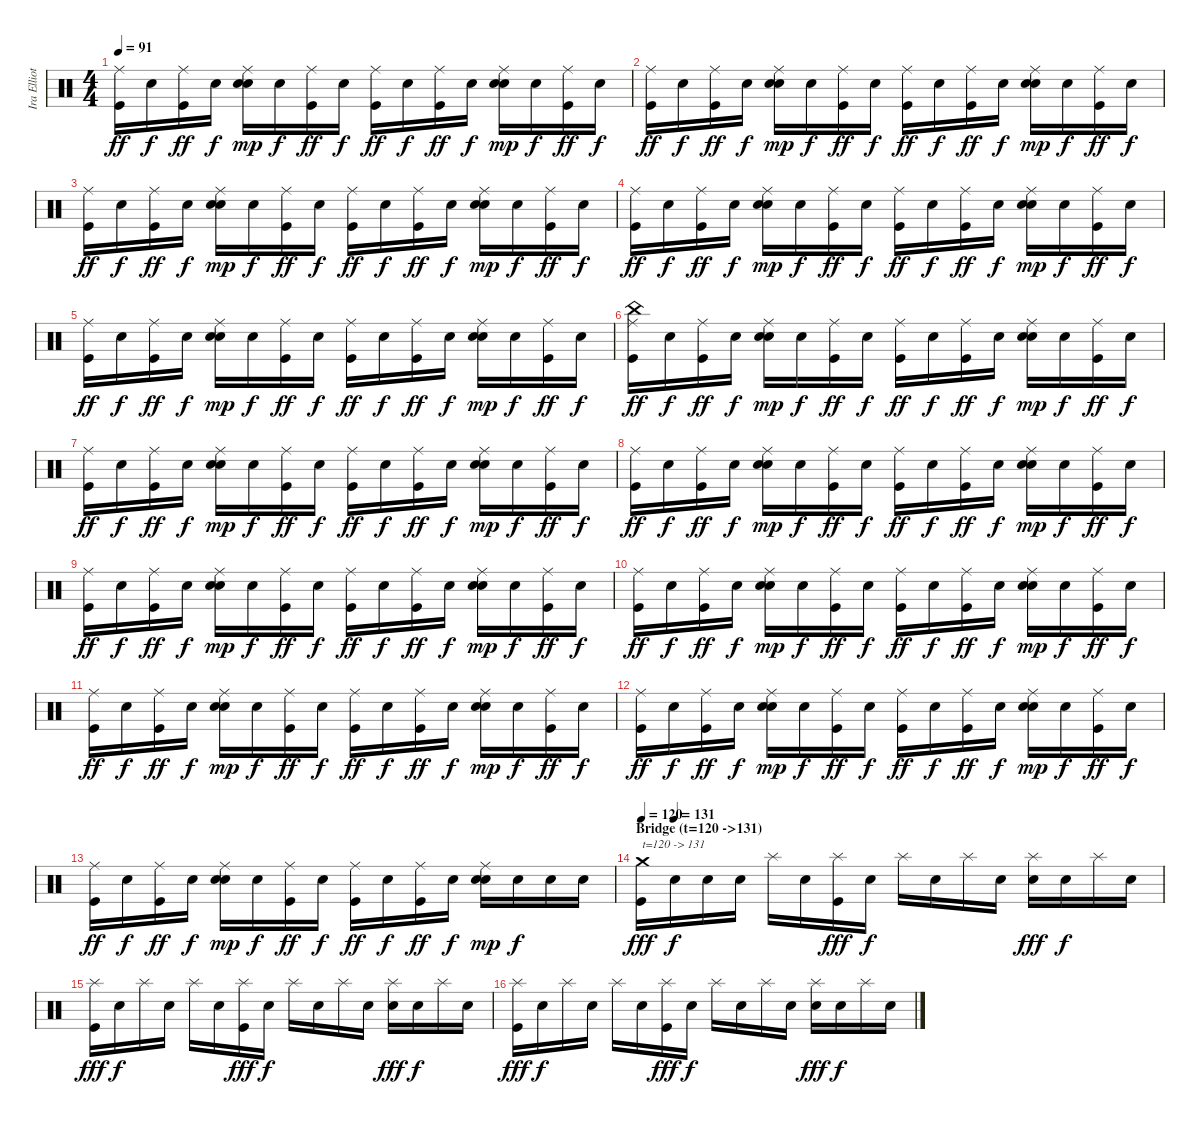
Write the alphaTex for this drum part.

\track ("Ira Elliot - Drums" "Ira Elliot") {instrument percussion}
\staff {score}
\articulation defaults
\ts (4 4)
\tempo 91
\clef neutral
\ks c
("Ride (middle)" "Kick (hit)").16{dy ff} "Snare (hit)".16{dy f} ("Ride (middle)" "Kick (hit)").16{dy ff} "Snare (hit)".16{dy f} ("Ride (middle)" "Electric Snare (hit)" "Snare (hit) 2").16{dy mp} "Snare (hit)".16{dy f} ("Ride (middle)" "Kick (hit)").16{dy ff} "Snare (hit)".16{dy f} ("Ride (middle)" "Kick (hit)").16{dy ff} "Snare (hit)".16{dy f} ("Ride (middle)" "Kick (hit)").16{dy ff} "Snare (hit)".16{dy f} ("Ride (middle)" "Electric Snare (hit)" "Snare (hit) 2").16{dy mp} "Snare (hit)".16{dy f} ("Ride (middle)" "Kick (hit)").16{dy ff} "Snare (hit)".16{dy f} |
("Ride (middle)" "Kick (hit)").16{dy ff} "Snare (hit)".16{dy f} ("Ride (middle)" "Kick (hit)").16{dy ff} "Snare (hit)".16{dy f} ("Ride (middle)" "Electric Snare (hit)" "Snare (hit) 2").16{dy mp} "Snare (hit)".16{dy f} ("Ride (middle)" "Kick (hit)").16{dy ff} "Snare (hit)".16{dy f} ("Ride (middle)" "Kick (hit)").16{dy ff} "Snare (hit)".16{dy f} ("Ride (middle)" "Kick (hit)").16{dy ff} "Snare (hit)".16{dy f} ("Ride (middle)" "Electric Snare (hit)" "Snare (hit) 2").16{dy mp} "Snare (hit)".16{dy f} ("Ride (middle)" "Kick (hit)").16{dy ff} "Snare (hit)".16{dy f} |
("Ride (middle)" "Kick (hit)").16{dy ff} "Snare (hit)".16{dy f} ("Ride (middle)" "Kick (hit)").16{dy ff} "Snare (hit)".16{dy f} ("Ride (middle)" "Electric Snare (hit)" "Snare (hit) 2").16{dy mp} "Snare (hit)".16{dy f} ("Ride (middle)" "Kick (hit)").16{dy ff} "Snare (hit)".16{dy f} ("Ride (middle)" "Kick (hit)").16{dy ff} "Snare (hit)".16{dy f} ("Ride (middle)" "Kick (hit)").16{dy ff} "Snare (hit)".16{dy f} ("Ride (middle)" "Electric Snare (hit)" "Snare (hit) 2").16{dy mp} "Snare (hit)".16{dy f} ("Ride (middle)" "Kick (hit)").16{dy ff} "Snare (hit)".16{dy f} |
("Ride (middle)" "Kick (hit)").16{dy ff} "Snare (hit)".16{dy f} ("Ride (middle)" "Kick (hit)").16{dy ff} "Snare (hit)".16{dy f} ("Ride (middle)" "Electric Snare (hit)" "Snare (hit) 2").16{dy mp} "Snare (hit)".16{dy f} ("Ride (middle)" "Kick (hit)").16{dy ff} "Snare (hit)".16{dy f} ("Ride (middle)" "Kick (hit)").16{dy ff} "Snare (hit)".16{dy f} ("Ride (middle)" "Kick (hit)").16{dy ff} "Snare (hit)".16{dy f} ("Ride (middle)" "Electric Snare (hit)" "Snare (hit) 2").16{dy mp} "Snare (hit)".16{dy f} ("Ride (middle)" "Kick (hit)").16{dy ff} "Snare (hit)".16{dy f} |
("Ride (middle)" "Kick (hit)").16{dy ff} "Snare (hit)".16{dy f} ("Ride (middle)" "Kick (hit)").16{dy ff} "Snare (hit)".16{dy f} ("Ride (middle)" "Electric Snare (hit)" "Snare (hit) 2").16{dy mp} "Snare (hit)".16{dy f} ("Ride (middle)" "Kick (hit)").16{dy ff} "Snare (hit)".16{dy f} ("Ride (middle)" "Kick (hit)").16{dy ff} "Snare (hit)".16{dy f} ("Ride (middle)" "Kick (hit)").16{dy ff} "Snare (hit)".16{dy f} ("Ride (middle)" "Electric Snare (hit)" "Snare (hit) 2").16{dy mp} "Snare (hit)".16{dy f} ("Ride (middle)" "Kick (hit)").16{dy ff} "Snare (hit)".16{dy f} |
("Ride (middle)" "China (hit)" "Kick (hit)").16{dy ff} "Snare (hit)".16{dy f} ("Ride (middle)" "Kick (hit)").16{dy ff} "Snare (hit)".16{dy f} ("Ride (middle)" "Electric Snare (hit)" "Snare (hit) 2").16{dy mp} "Snare (hit)".16{dy f} ("Ride (middle)" "Kick (hit)").16{dy ff} "Snare (hit)".16{dy f} ("Ride (middle)" "Kick (hit)").16{dy ff} "Snare (hit)".16{dy f} ("Ride (middle)" "Kick (hit)").16{dy ff} "Snare (hit)".16{dy f} ("Ride (middle)" "Electric Snare (hit)" "Snare (hit) 2").16{dy mp} "Snare (hit)".16{dy f} ("Ride (middle)" "Kick (hit)").16{dy ff} "Snare (hit)".16{dy f} |
("Ride (middle)" "Kick (hit)").16{dy ff} "Snare (hit)".16{dy f} ("Ride (middle)" "Kick (hit)").16{dy ff} "Snare (hit)".16{dy f} ("Ride (middle)" "Electric Snare (hit)" "Snare (hit) 2").16{dy mp} "Snare (hit)".16{dy f} ("Ride (middle)" "Kick (hit)").16{dy ff} "Snare (hit)".16{dy f} ("Ride (middle)" "Kick (hit)").16{dy ff} "Snare (hit)".16{dy f} ("Ride (middle)" "Kick (hit)").16{dy ff} "Snare (hit)".16{dy f} ("Ride (middle)" "Electric Snare (hit)" "Snare (hit) 2").16{dy mp} "Snare (hit)".16{dy f} ("Ride (middle)" "Kick (hit)").16{dy ff} "Snare (hit)".16{dy f} |
("Ride (middle)" "Kick (hit)").16{dy ff} "Snare (hit)".16{dy f} ("Ride (middle)" "Kick (hit)").16{dy ff} "Snare (hit)".16{dy f} ("Ride (middle)" "Electric Snare (hit)" "Snare (hit) 2").16{dy mp} "Snare (hit)".16{dy f} ("Ride (middle)" "Kick (hit)").16{dy ff} "Snare (hit)".16{dy f} ("Ride (middle)" "Kick (hit)").16{dy ff} "Snare (hit)".16{dy f} ("Ride (middle)" "Kick (hit)").16{dy ff} "Snare (hit)".16{dy f} ("Ride (middle)" "Electric Snare (hit)" "Snare (hit) 2").16{dy mp} "Snare (hit)".16{dy f} ("Ride (middle)" "Kick (hit)").16{dy ff} "Snare (hit)".16{dy f} |
("Ride (middle)" "Kick (hit)").16{dy ff} "Snare (hit)".16{dy f} ("Ride (middle)" "Kick (hit)").16{dy ff} "Snare (hit)".16{dy f} ("Ride (middle)" "Electric Snare (hit)" "Snare (hit) 2").16{dy mp} "Snare (hit)".16{dy f} ("Ride (middle)" "Kick (hit)").16{dy ff} "Snare (hit)".16{dy f} ("Ride (middle)" "Kick (hit)").16{dy ff} "Snare (hit)".16{dy f} ("Ride (middle)" "Kick (hit)").16{dy ff} "Snare (hit)".16{dy f} ("Ride (middle)" "Electric Snare (hit)" "Snare (hit) 2").16{dy mp} "Snare (hit)".16{dy f} ("Ride (middle)" "Kick (hit)").16{dy ff} "Snare (hit)".16{dy f} |
("Ride (middle)" "Kick (hit)").16{dy ff} "Snare (hit)".16{dy f} ("Ride (middle)" "Kick (hit)").16{dy ff} "Snare (hit)".16{dy f} ("Ride (middle)" "Electric Snare (hit)" "Snare (hit) 2").16{dy mp} "Snare (hit)".16{dy f} ("Ride (middle)" "Kick (hit)").16{dy ff} "Snare (hit)".16{dy f} ("Ride (middle)" "Kick (hit)").16{dy ff} "Snare (hit)".16{dy f} ("Ride (middle)" "Kick (hit)").16{dy ff} "Snare (hit)".16{dy f} ("Ride (middle)" "Electric Snare (hit)" "Snare (hit) 2").16{dy mp} "Snare (hit)".16{dy f} ("Ride (middle)" "Kick (hit)").16{dy ff} "Snare (hit)".16{dy f} |
("Ride (middle)" "Kick (hit)").16{dy ff} "Snare (hit)".16{dy f} ("Ride (middle)" "Kick (hit)").16{dy ff} "Snare (hit)".16{dy f} ("Ride (middle)" "Electric Snare (hit)" "Snare (hit) 2").16{dy mp} "Snare (hit)".16{dy f} ("Ride (middle)" "Kick (hit)").16{dy ff} "Snare (hit)".16{dy f} ("Ride (middle)" "Kick (hit)").16{dy ff} "Snare (hit)".16{dy f} ("Ride (middle)" "Kick (hit)").16{dy ff} "Snare (hit)".16{dy f} ("Ride (middle)" "Electric Snare (hit)" "Snare (hit) 2").16{dy mp} "Snare (hit)".16{dy f} ("Ride (middle)" "Kick (hit)").16{dy ff} "Snare (hit)".16{dy f} |
("Ride (middle)" "Kick (hit)").16{dy ff} "Snare (hit)".16{dy f} ("Ride (middle)" "Kick (hit)").16{dy ff} "Snare (hit)".16{dy f} ("Ride (middle)" "Electric Snare (hit)" "Snare (hit) 2").16{dy mp} "Snare (hit)".16{dy f} ("Ride (middle)" "Kick (hit)").16{dy ff} "Snare (hit)".16{dy f} ("Ride (middle)" "Kick (hit)").16{dy ff} "Snare (hit)".16{dy f} ("Ride (middle)" "Kick (hit)").16{dy ff} "Snare (hit)".16{dy f} ("Ride (middle)" "Electric Snare (hit)" "Snare (hit) 2").16{dy mp} "Snare (hit)".16{dy f} ("Ride (middle)" "Kick (hit)").16{dy ff} "Snare (hit)".16{dy f} |
("Ride (middle)" "Kick (hit)").16{dy ff} "Snare (hit)".16{dy f} ("Ride (middle)" "Kick (hit)").16{dy ff} "Snare (hit)".16{dy f} ("Ride (middle)" "Electric Snare (hit)" "Snare (hit) 2").16{dy mp} "Snare (hit)".16{dy f} ("Ride (middle)" "Kick (hit)").16{dy ff} "Snare (hit)".16{dy f} ("Ride (middle)" "Kick (hit)").16{dy ff} "Snare (hit)".16{dy f} ("Ride (middle)" "Kick (hit)").16{dy ff} "Snare (hit)".16{dy f} ("Ride (middle)" "Electric Snare (hit)" "Snare (hit) 2").16{dy mp} "Snare (hit)".16{dy f} "Snare (hit)".16 "Snare (hit)".16 |
\section ("" "Bridge (t=120 ->131)")
\tempo 120
\tempo (131 0.0625)
("Crash medium (hit)" "Kick (hit)").16{txt "t=120 -> 131" dy fff volume 16 balance 8} "Snare (hit)".16{dy f} "Snare (hit)".16 "Snare (hit)".16 "Splash (hit)".16 "Snare (hit)".16 ("Splash (hit)" "Kick (hit)").16{dy fff} "Snare (hit)".16{dy f} "Splash (hit)".16 "Snare (hit)".16 "Splash (hit)".16 "Snare (hit)".16 ("Splash (hit)" "Electric Snare (hit)").16{dy fff} "Snare (hit)".16{dy f} "Splash (hit)".16 "Snare (hit)".16 |
("Splash (hit)" "Kick (hit)").16{dy fff} "Snare (hit)".16{dy f} "Splash (hit)".16 "Snare (hit)".16 "Splash (hit)".16 "Snare (hit)".16 ("Splash (hit)" "Kick (hit)").16{dy fff} "Snare (hit)".16{dy f} "Splash (hit)".16 "Snare (hit)".16 "Splash (hit)".16 "Snare (hit)".16 ("Splash (hit)" "Electric Snare (hit)").16{dy fff} "Snare (hit)".16{dy f} "Splash (hit)".16 "Snare (hit)".16 |
("Splash (hit)" "Kick (hit)").16{dy fff} "Snare (hit)".16{dy f} "Splash (hit)".16 "Snare (hit)".16 "Splash (hit)".16 "Snare (hit)".16 ("Splash (hit)" "Kick (hit)").16{dy fff} "Snare (hit)".16{dy f} "Splash (hit)".16 "Snare (hit)".16 "Splash (hit)".16 "Snare (hit)".16 ("Splash (hit)" "Electric Snare (hit)").16{dy fff} "Snare (hit)".16{dy f} "Splash (hit)".16 "Snare (hit)".16
